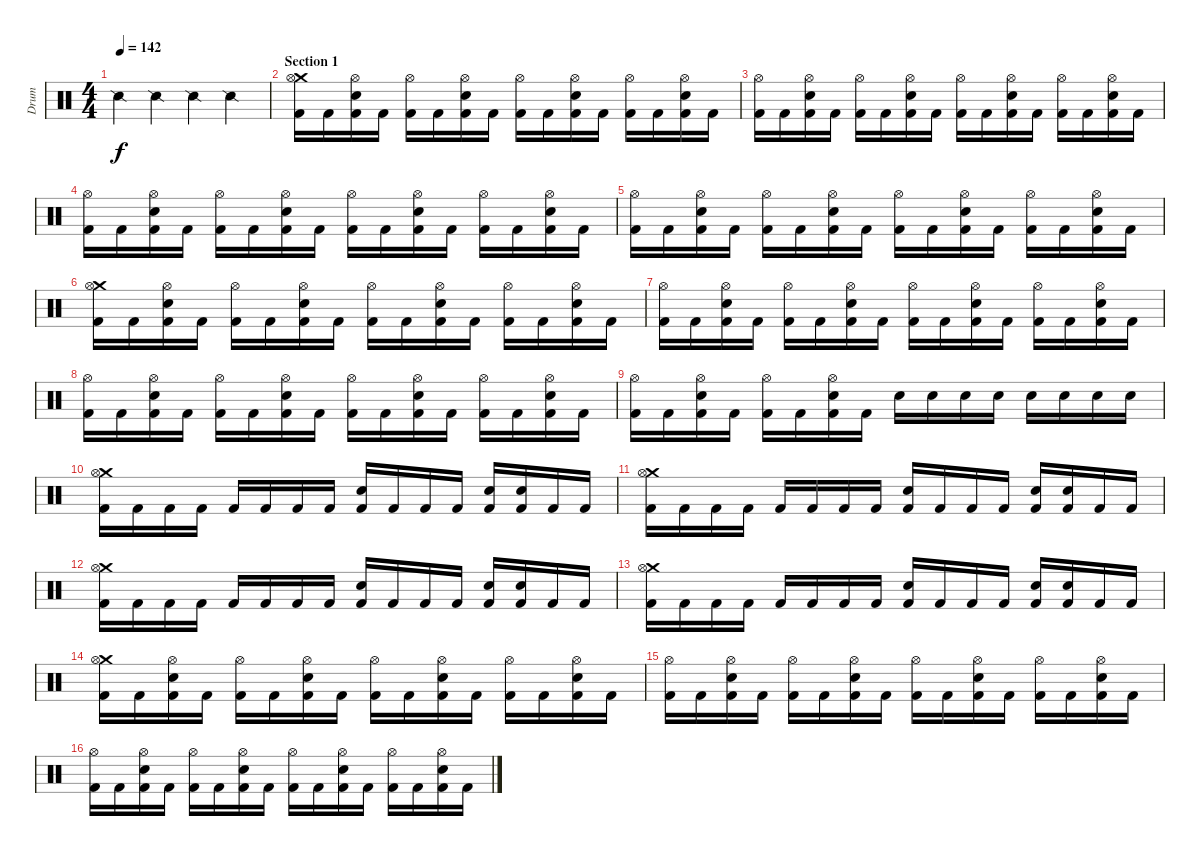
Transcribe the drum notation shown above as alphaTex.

\track ("Drum" "Drum") {instrument percussion}
\staff {score}
\articulation defaults
\ts (4 4)
\tempo 142
\clef neutral
\ks c "Snare (side stick) 2".4{dy f} "Snare (side stick) 2".4 "Snare (side stick) 2".4 "Snare (side stick) 2".4
|
\section ("" "Section 1")
("Crash medium (hit)" "Hi-Hat (open)" "Kick (hit) 2").16 "Kick (hit) 2".16 ("Electric Snare (hit)" "Hi-Hat (open)" "Kick (hit) 2").16 "Kick (hit) 2".16 ("Hi-Hat (open)" "Kick (hit) 2").16 "Kick (hit) 2".16 ("Electric Snare (hit)" "Hi-Hat (open)" "Kick (hit) 2").16 "Kick (hit) 2".16 ("Hi-Hat (open)" "Kick (hit) 2").16 "Kick (hit) 2".16 ("Electric Snare (hit)" "Hi-Hat (open)" "Kick (hit) 2").16 "Kick (hit) 2".16 ("Hi-Hat (open)" "Kick (hit) 2").16 "Kick (hit) 2".16 ("Electric Snare (hit)" "Hi-Hat (open)" "Kick (hit) 2").16 "Kick (hit) 2".16 |
("Hi-Hat (open)" "Kick (hit) 2").16 "Kick (hit) 2".16 ("Electric Snare (hit)" "Hi-Hat (open)" "Kick (hit) 2").16 "Kick (hit) 2".16 ("Hi-Hat (open)" "Kick (hit) 2").16 "Kick (hit) 2".16 ("Electric Snare (hit)" "Hi-Hat (open)" "Kick (hit) 2").16 "Kick (hit) 2".16 ("Hi-Hat (open)" "Kick (hit) 2").16 "Kick (hit) 2".16 ("Electric Snare (hit)" "Hi-Hat (open)" "Kick (hit) 2").16 "Kick (hit) 2".16 ("Hi-Hat (open)" "Kick (hit) 2").16 "Kick (hit) 2".16 ("Electric Snare (hit)" "Hi-Hat (open)" "Kick (hit) 2").16 "Kick (hit) 2".16 |
("Hi-Hat (open)" "Kick (hit) 2").16 "Kick (hit) 2".16 ("Electric Snare (hit)" "Hi-Hat (open)" "Kick (hit) 2").16 "Kick (hit) 2".16 ("Hi-Hat (open)" "Kick (hit) 2").16 "Kick (hit) 2".16 ("Electric Snare (hit)" "Hi-Hat (open)" "Kick (hit) 2").16 "Kick (hit) 2".16 ("Hi-Hat (open)" "Kick (hit) 2").16 "Kick (hit) 2".16 ("Electric Snare (hit)" "Hi-Hat (open)" "Kick (hit) 2").16 "Kick (hit) 2".16 ("Hi-Hat (open)" "Kick (hit) 2").16 "Kick (hit) 2".16 ("Electric Snare (hit)" "Hi-Hat (open)" "Kick (hit) 2").16 "Kick (hit) 2".16 |
("Hi-Hat (open)" "Kick (hit) 2").16 "Kick (hit) 2".16 ("Electric Snare (hit)" "Hi-Hat (open)" "Kick (hit) 2").16 "Kick (hit) 2".16 ("Hi-Hat (open)" "Kick (hit) 2").16 "Kick (hit) 2".16 ("Electric Snare (hit)" "Hi-Hat (open)" "Kick (hit) 2").16 "Kick (hit) 2".16 ("Hi-Hat (open)" "Kick (hit) 2").16 "Kick (hit) 2".16 ("Electric Snare (hit)" "Hi-Hat (open)" "Kick (hit) 2").16 "Kick (hit) 2".16 ("Hi-Hat (open)" "Kick (hit) 2").16 "Kick (hit) 2".16 ("Electric Snare (hit)" "Hi-Hat (open)" "Kick (hit) 2").16 "Kick (hit) 2".16 |
("Crash medium (hit)" "Hi-Hat (open)" "Kick (hit) 2").16 "Kick (hit) 2".16 ("Electric Snare (hit)" "Hi-Hat (open)" "Kick (hit) 2").16 "Kick (hit) 2".16 ("Hi-Hat (open)" "Kick (hit) 2").16 "Kick (hit) 2".16 ("Electric Snare (hit)" "Hi-Hat (open)" "Kick (hit) 2").16 "Kick (hit) 2".16 ("Hi-Hat (open)" "Kick (hit) 2").16 "Kick (hit) 2".16 ("Electric Snare (hit)" "Hi-Hat (open)" "Kick (hit) 2").16 "Kick (hit) 2".16 ("Hi-Hat (open)" "Kick (hit) 2").16 "Kick (hit) 2".16 ("Electric Snare (hit)" "Hi-Hat (open)" "Kick (hit) 2").16 "Kick (hit) 2".16 |
("Hi-Hat (open)" "Kick (hit) 2").16 "Kick (hit) 2".16 ("Electric Snare (hit)" "Hi-Hat (open)" "Kick (hit) 2").16 "Kick (hit) 2".16 ("Hi-Hat (open)" "Kick (hit) 2").16 "Kick (hit) 2".16 ("Electric Snare (hit)" "Hi-Hat (open)" "Kick (hit) 2").16 "Kick (hit) 2".16 ("Hi-Hat (open)" "Kick (hit) 2").16 "Kick (hit) 2".16 ("Electric Snare (hit)" "Hi-Hat (open)" "Kick (hit) 2").16 "Kick (hit) 2".16 ("Hi-Hat (open)" "Kick (hit) 2").16 "Kick (hit) 2".16 ("Electric Snare (hit)" "Hi-Hat (open)" "Kick (hit) 2").16 "Kick (hit) 2".16 |
("Hi-Hat (open)" "Kick (hit) 2").16 "Kick (hit) 2".16 ("Electric Snare (hit)" "Hi-Hat (open)" "Kick (hit) 2").16 "Kick (hit) 2".16 ("Hi-Hat (open)" "Kick (hit) 2").16 "Kick (hit) 2".16 ("Electric Snare (hit)" "Hi-Hat (open)" "Kick (hit) 2").16 "Kick (hit) 2".16 ("Hi-Hat (open)" "Kick (hit) 2").16 "Kick (hit) 2".16 ("Electric Snare (hit)" "Hi-Hat (open)" "Kick (hit) 2").16 "Kick (hit) 2".16 ("Hi-Hat (open)" "Kick (hit) 2").16 "Kick (hit) 2".16 ("Electric Snare (hit)" "Hi-Hat (open)" "Kick (hit) 2").16 "Kick (hit) 2".16 |
("Hi-Hat (open)" "Kick (hit) 2").16 "Kick (hit) 2".16 ("Electric Snare (hit)" "Hi-Hat (open)" "Kick (hit) 2").16 "Kick (hit) 2".16 ("Hi-Hat (open)" "Kick (hit) 2").16 "Kick (hit) 2".16 ("Electric Snare (hit)" "Hi-Hat (open)" "Kick (hit) 2").16 "Kick (hit) 2".16 "Electric Snare (hit)".16 "Electric Snare (hit)".16 "Electric Snare (hit)".16 "Electric Snare (hit)".16 "Electric Snare (hit)".16 "Electric Snare (hit)".16 "Electric Snare (hit)".16 "Electric Snare (hit)".16 |
("Crash medium (hit)" "Hi-Hat (open)" "Kick (hit) 2").16 "Kick (hit) 2".16 "Kick (hit) 2".16 "Kick (hit) 2".16 "Kick (hit) 2".16 "Kick (hit) 2".16 "Kick (hit) 2".16 "Kick (hit) 2".16 ("Electric Snare (hit)" "Kick (hit) 2").16 "Kick (hit) 2".16 "Kick (hit) 2".16 "Kick (hit) 2".16 ("Electric Snare (hit)" "Kick (hit) 2").16 ("Electric Snare (hit)" "Kick (hit) 2").16 "Kick (hit) 2".16 "Kick (hit) 2".16 |
("Crash medium (hit)" "Hi-Hat (open)" "Kick (hit) 2").16 "Kick (hit) 2".16 "Kick (hit) 2".16 "Kick (hit) 2".16 "Kick (hit) 2".16 "Kick (hit) 2".16 "Kick (hit) 2".16 "Kick (hit) 2".16 ("Electric Snare (hit)" "Kick (hit) 2").16 "Kick (hit) 2".16 "Kick (hit) 2".16 "Kick (hit) 2".16 ("Electric Snare (hit)" "Kick (hit) 2").16 ("Electric Snare (hit)" "Kick (hit) 2").16 "Kick (hit) 2".16 "Kick (hit) 2".16 |
("Crash medium (hit)" "Hi-Hat (open)" "Kick (hit) 2").16 "Kick (hit) 2".16 "Kick (hit) 2".16 "Kick (hit) 2".16 "Kick (hit) 2".16 "Kick (hit) 2".16 "Kick (hit) 2".16 "Kick (hit) 2".16 ("Electric Snare (hit)" "Kick (hit) 2").16 "Kick (hit) 2".16 "Kick (hit) 2".16 "Kick (hit) 2".16 ("Electric Snare (hit)" "Kick (hit) 2").16 ("Electric Snare (hit)" "Kick (hit) 2").16 "Kick (hit) 2".16 "Kick (hit) 2".16 |
("Crash medium (hit)" "Hi-Hat (open)" "Kick (hit) 2").16 "Kick (hit) 2".16 "Kick (hit) 2".16 "Kick (hit) 2".16 "Kick (hit) 2".16 "Kick (hit) 2".16 "Kick (hit) 2".16 "Kick (hit) 2".16 ("Electric Snare (hit)" "Kick (hit) 2").16 "Kick (hit) 2".16 "Kick (hit) 2".16 "Kick (hit) 2".16 ("Electric Snare (hit)" "Kick (hit) 2").16 ("Electric Snare (hit)" "Kick (hit) 2").16 "Kick (hit) 2".16 "Kick (hit) 2".16 |
("Crash medium (hit)" "Hi-Hat (open)" "Kick (hit) 2").16 "Kick (hit) 2".16 ("Electric Snare (hit)" "Hi-Hat (open)" "Kick (hit) 2").16 "Kick (hit) 2".16 ("Hi-Hat (open)" "Kick (hit) 2").16 "Kick (hit) 2".16 ("Electric Snare (hit)" "Hi-Hat (open)" "Kick (hit) 2").16 "Kick (hit) 2".16 ("Hi-Hat (open)" "Kick (hit) 2").16 "Kick (hit) 2".16 ("Electric Snare (hit)" "Hi-Hat (open)" "Kick (hit) 2").16 "Kick (hit) 2".16 ("Hi-Hat (open)" "Kick (hit) 2").16 "Kick (hit) 2".16 ("Electric Snare (hit)" "Hi-Hat (open)" "Kick (hit) 2").16 "Kick (hit) 2".16 |
("Hi-Hat (open)" "Kick (hit) 2").16 "Kick (hit) 2".16 ("Electric Snare (hit)" "Hi-Hat (open)" "Kick (hit) 2").16 "Kick (hit) 2".16 ("Hi-Hat (open)" "Kick (hit) 2").16 "Kick (hit) 2".16 ("Electric Snare (hit)" "Hi-Hat (open)" "Kick (hit) 2").16 "Kick (hit) 2".16 ("Hi-Hat (open)" "Kick (hit) 2").16 "Kick (hit) 2".16 ("Electric Snare (hit)" "Hi-Hat (open)" "Kick (hit) 2").16 "Kick (hit) 2".16 ("Hi-Hat (open)" "Kick (hit) 2").16 "Kick (hit) 2".16 ("Electric Snare (hit)" "Hi-Hat (open)" "Kick (hit) 2").16 "Kick (hit) 2".16 |
("Hi-Hat (open)" "Kick (hit) 2").16 "Kick (hit) 2".16 ("Electric Snare (hit)" "Hi-Hat (open)" "Kick (hit) 2").16 "Kick (hit) 2".16 ("Hi-Hat (open)" "Kick (hit) 2").16 "Kick (hit) 2".16 ("Electric Snare (hit)" "Hi-Hat (open)" "Kick (hit) 2").16 "Kick (hit) 2".16 ("Hi-Hat (open)" "Kick (hit) 2").16 "Kick (hit) 2".16 ("Electric Snare (hit)" "Hi-Hat (open)" "Kick (hit) 2").16 "Kick (hit) 2".16 ("Hi-Hat (open)" "Kick (hit) 2").16 "Kick (hit) 2".16 ("Electric Snare (hit)" "Hi-Hat (open)" "Kick (hit) 2").16 "Kick (hit) 2".16
